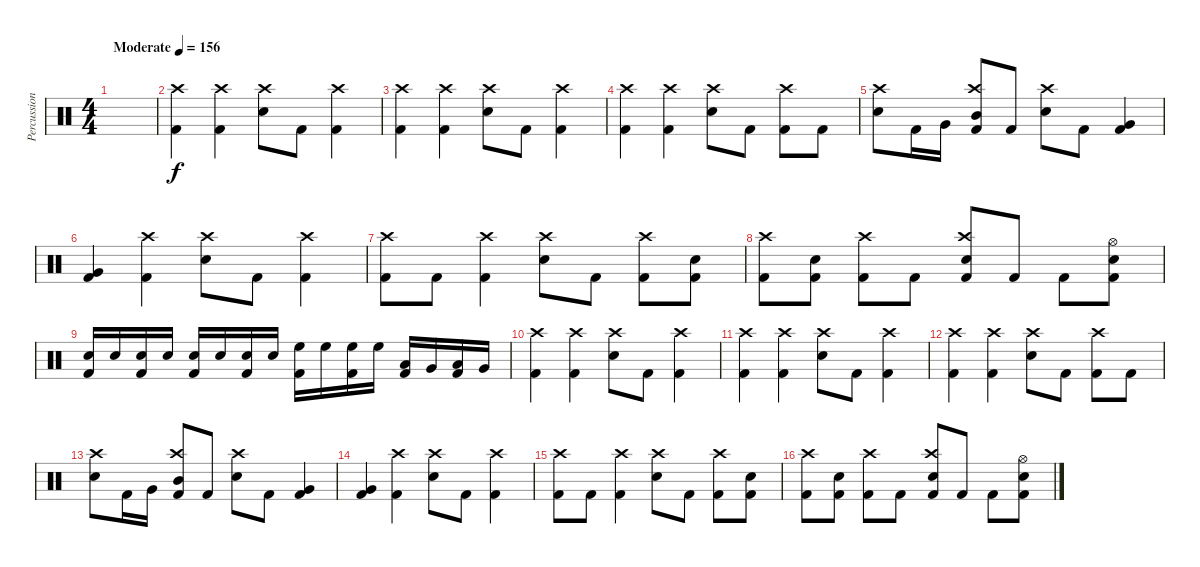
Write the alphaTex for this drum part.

\track ("Percussion" "Percussion") {instrument percussion}
\staff {score}
\articulation defaults
\ts (4 4)
\tempo (156 "Moderate")
\clef neutral
\ks c
|
("Kick (hit) 2" "Crash high (hit)").4 ("Kick (hit) 2" "Crash high (hit)").4 ("Electric Snare (hit)" "Crash high (hit)").8 "Kick (hit) 2".8 ("Kick (hit) 2" "Crash high (hit)").4 |
("Kick (hit) 2" "Crash high (hit)").4 ("Kick (hit) 2" "Crash high (hit)").4 ("Electric Snare (hit)" "Crash high (hit)").8 "Kick (hit) 2".8 ("Kick (hit) 2" "Crash high (hit)").4 |
("Kick (hit) 2" "Crash high (hit)").4 ("Kick (hit) 2" "Crash high (hit)").4 ("Electric Snare (hit)" "Crash high (hit)").8 "Kick (hit) 2".8 ("Kick (hit) 2" "Crash high (hit)").8 "Kick (hit) 2".8 |
("Electric Snare (hit)" "Crash high (hit)").8 "Kick (hit) 2".16 "Very Low Tom (hit)".16 ("Kick (hit) 2" "Mid Tom (hit)" "Crash high (hit)").8 "Kick (hit) 2".8 ("Electric Snare (hit)" "Crash high (hit)").8 "Kick (hit) 2".8 ("Kick (hit) 2" "Very Low Tom (hit)").4 |
("Kick (hit) 2" "Very Low Tom (hit)").4 ("Kick (hit) 2" "Crash high (hit)").4 ("Electric Snare (hit)" "Crash high (hit)").8 "Kick (hit) 2".8 ("Kick (hit) 2" "Crash high (hit)").4 |
("Kick (hit) 2" "Crash high (hit)").8 "Kick (hit) 2".8 ("Kick (hit) 2" "Crash high (hit)").4 ("Electric Snare (hit)" "Crash high (hit)").8 "Kick (hit) 2".8 ("Kick (hit) 2" "Crash high (hit)").8 ("Kick (hit) 2" "Electric Snare (hit)").8 |
("Kick (hit) 2" "Crash high (hit)").8 ("Kick (hit) 2" "Electric Snare (hit)").8 ("Kick (hit) 2" "Crash high (hit)").8 "Kick (hit) 2".8 ("Kick (hit) 2" "Electric Snare (hit)" "Crash high (hit)").8 "Kick (hit) 2".8 "Kick (hit) 2".8 ("Kick (hit) 2" "Electric Snare (hit)" "Hi-Hat (open)").8 |
("Kick (hit) 2" "Electric Snare (hit)").16 "Electric Snare (hit)".16 ("Kick (hit) 2" "Electric Snare (hit)").16 "Electric Snare (hit)".16 ("Kick (hit) 2" "Electric Snare (hit)").16 "Electric Snare (hit)".16 ("Kick (hit) 2" "Electric Snare (hit)").16 "Electric Snare (hit)".16 ("Kick (hit) 2" "High Floor Tom (hit)").16 "High Floor Tom (hit)".16 ("Kick (hit) 2" "High Floor Tom (hit)").16 "High Floor Tom (hit)".16 ("Kick (hit) 2" "Low Tom (hit)").16 "Very Low Tom (hit)".16 ("Kick (hit) 2" "Low Tom (hit)").16 "Very Low Tom (hit)".16 |
("Kick (hit) 2" "Crash high (hit)").4 ("Kick (hit) 2" "Crash high (hit)").4 ("Electric Snare (hit)" "Crash high (hit)").8 "Kick (hit) 2".8 ("Kick (hit) 2" "Crash high (hit)").4 |
("Kick (hit) 2" "Crash high (hit)").4 ("Kick (hit) 2" "Crash high (hit)").4 ("Electric Snare (hit)" "Crash high (hit)").8 "Kick (hit) 2".8 ("Kick (hit) 2" "Crash high (hit)").4 |
("Kick (hit) 2" "Crash high (hit)").4 ("Kick (hit) 2" "Crash high (hit)").4 ("Electric Snare (hit)" "Crash high (hit)").8 "Kick (hit) 2".8 ("Kick (hit) 2" "Crash high (hit)").8 "Kick (hit) 2".8 |
("Electric Snare (hit)" "Crash high (hit)").8 "Kick (hit) 2".16 "Very Low Tom (hit)".16 ("Kick (hit) 2" "Mid Tom (hit)" "Crash high (hit)").8 "Kick (hit) 2".8 ("Electric Snare (hit)" "Crash high (hit)").8 "Kick (hit) 2".8 ("Kick (hit) 2" "Very Low Tom (hit)").4 |
("Kick (hit) 2" "Very Low Tom (hit)").4 ("Kick (hit) 2" "Crash high (hit)").4 ("Electric Snare (hit)" "Crash high (hit)").8 "Kick (hit) 2".8 ("Kick (hit) 2" "Crash high (hit)").4 |
("Kick (hit) 2" "Crash high (hit)").8 "Kick (hit) 2".8 ("Kick (hit) 2" "Crash high (hit)").4 ("Electric Snare (hit)" "Crash high (hit)").8 "Kick (hit) 2".8 ("Kick (hit) 2" "Crash high (hit)").8 ("Kick (hit) 2" "Electric Snare (hit)").8 |
("Kick (hit) 2" "Crash high (hit)").8 ("Kick (hit) 2" "Electric Snare (hit)").8 ("Kick (hit) 2" "Crash high (hit)").8 "Kick (hit) 2".8 ("Kick (hit) 2" "Electric Snare (hit)" "Crash high (hit)").8 "Kick (hit) 2".8 "Kick (hit) 2".8 ("Kick (hit) 2" "Electric Snare (hit)" "Hi-Hat (open)").8
